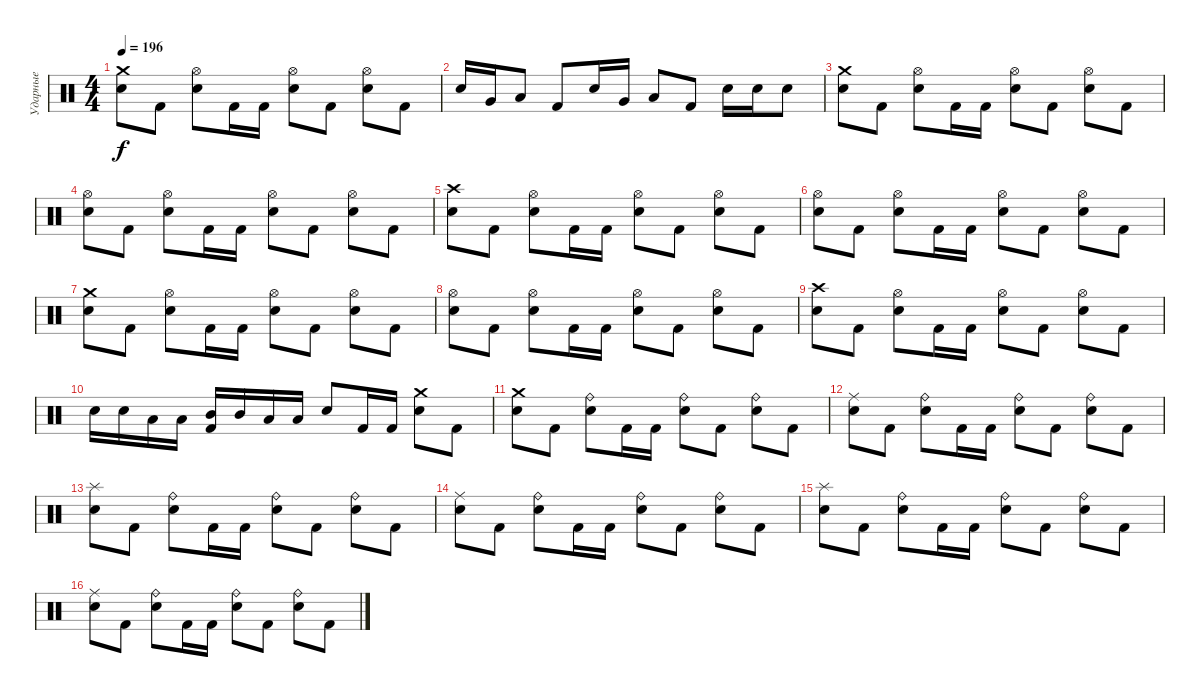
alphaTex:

\track ("Ударные" "Ударные") {instrument percussion}
\staff {score}
\articulation defaults
\ts (4 4)
\tempo 196
\clef neutral
\ks c
("Crash medium (hit)" "Snare (hit) 2").8{dy f} "Kick (hit) 2".8 ("Hi-Hat (open)" "Snare (hit) 2").8 "Kick (hit) 2".16 "Kick (hit) 2".16 ("Hi-Hat (open)" "Snare (hit) 2").8 "Kick (hit) 2".8 ("Hi-Hat (open)" "Snare (hit) 2").8 "Kick (hit) 2".8 |
"Snare (hit) 2".16 "Very Low Tom (hit)".16 "Low Tom (hit)".8 "Kick (hit) 2".8 "Snare (hit) 2".16 "Very Low Tom (hit)".16 "Low Tom (hit)".8 "Kick (hit) 2".8 "Snare (hit) 2".16 "Snare (hit) 2".16 "Snare (hit) 2".8 |
("Crash medium (hit)" "Snare (hit) 2").8 "Kick (hit) 2".8 ("Hi-Hat (open)" "Snare (hit) 2").8 "Kick (hit) 2".16 "Kick (hit) 2".16 ("Hi-Hat (open)" "Snare (hit) 2").8 "Kick (hit) 2".8 ("Hi-Hat (open)" "Snare (hit) 2").8 "Kick (hit) 2".8 |
("Hi-Hat (open)" "Snare (hit) 2").8 "Kick (hit) 2".8 ("Hi-Hat (open)" "Snare (hit) 2").8 "Kick (hit) 2".16 "Kick (hit) 2".16 ("Hi-Hat (open)" "Snare (hit) 2").8 "Kick (hit) 2".8 ("Hi-Hat (open)" "Snare (hit) 2").8 "Kick (hit) 2".8 |
("Crash high (hit)" "Snare (hit) 2").8 "Kick (hit) 2".8 ("Hi-Hat (open)" "Snare (hit) 2").8 "Kick (hit) 2".16 "Kick (hit) 2".16 ("Hi-Hat (open)" "Snare (hit) 2").8 "Kick (hit) 2".8 ("Hi-Hat (open)" "Snare (hit) 2").8 "Kick (hit) 2".8 |
("Hi-Hat (open)" "Snare (hit) 2").8 "Kick (hit) 2".8 ("Hi-Hat (open)" "Snare (hit) 2").8 "Kick (hit) 2".16 "Kick (hit) 2".16 ("Hi-Hat (open)" "Snare (hit) 2").8 "Kick (hit) 2".8 ("Hi-Hat (open)" "Snare (hit) 2").8 "Kick (hit) 2".8 |
("Crash medium (hit)" "Snare (hit) 2").8 "Kick (hit) 2".8 ("Hi-Hat (open)" "Snare (hit) 2").8 "Kick (hit) 2".16 "Kick (hit) 2".16 ("Hi-Hat (open)" "Snare (hit) 2").8 "Kick (hit) 2".8 ("Hi-Hat (open)" "Snare (hit) 2").8 "Kick (hit) 2".8 |
("Hi-Hat (open)" "Snare (hit) 2").8 "Kick (hit) 2".8 ("Hi-Hat (open)" "Snare (hit) 2").8 "Kick (hit) 2".16 "Kick (hit) 2".16 ("Hi-Hat (open)" "Snare (hit) 2").8 "Kick (hit) 2".8 ("Hi-Hat (open)" "Snare (hit) 2").8 "Kick (hit) 2".8 |
("Crash high (hit)" "Snare (hit) 2").8 "Kick (hit) 2".8 ("Hi-Hat (open)" "Snare (hit) 2").8 "Kick (hit) 2".16 "Kick (hit) 2".16 ("Hi-Hat (open)" "Snare (hit) 2").8 "Kick (hit) 2".8 ("Hi-Hat (open)" "Snare (hit) 2").8 "Kick (hit) 2".8 |
"Snare (hit) 2".16 "Snare (hit) 2".16 "Low Tom (hit)".16 "Low Tom (hit)".16 ("Mid Tom (hit)" "Kick (hit) 2").16 "Mid Tom (hit)".16 "Low Tom (hit)".16 "Low Tom (hit)".16 "Snare (hit) 2".8 "Kick (hit) 2".16 "Kick (hit) 2".16 ("Crash medium (hit)" "Snare (hit) 2").8 "Kick (hit) 2".8 |
("Crash medium (hit)" "Snare (hit) 2").8 "Kick (hit) 2".8 ("Ride (bell)" "Snare (hit) 2").8 "Kick (hit) 2".16 "Kick (hit) 2".16 ("Ride (bell)" "Snare (hit) 2").8 "Kick (hit) 2".8 ("Ride (bell)" "Snare (hit) 2").8 "Kick (hit) 2".8 |
("Ride (middle)" "Snare (hit) 2").8 "Kick (hit) 2".8 ("Ride (bell)" "Snare (hit) 2").8 "Kick (hit) 2".16 "Kick (hit) 2".16 ("Ride (bell)" "Snare (hit) 2").8 "Kick (hit) 2".8 ("Ride (bell)" "Snare (hit) 2").8 "Kick (hit) 2".8 |
("Splash (hit)" "Snare (hit) 2").8 "Kick (hit) 2".8 ("Ride (bell)" "Snare (hit) 2").8 "Kick (hit) 2".16 "Kick (hit) 2".16 ("Ride (bell)" "Snare (hit) 2").8 "Kick (hit) 2".8 ("Ride (bell)" "Snare (hit) 2").8 "Kick (hit) 2".8 |
("Ride (middle)" "Snare (hit) 2").8 "Kick (hit) 2".8 ("Ride (bell)" "Snare (hit) 2").8 "Kick (hit) 2".16 "Kick (hit) 2".16 ("Ride (bell)" "Snare (hit) 2").8 "Kick (hit) 2".8 ("Ride (bell)" "Snare (hit) 2").8 "Kick (hit) 2".8 |
("Splash (hit)" "Snare (hit) 2").8 "Kick (hit) 2".8 ("Ride (bell)" "Snare (hit) 2").8 "Kick (hit) 2".16 "Kick (hit) 2".16 ("Ride (bell)" "Snare (hit) 2").8 "Kick (hit) 2".8 ("Ride (bell)" "Snare (hit) 2").8 "Kick (hit) 2".8 |
("Ride (middle)" "Snare (hit) 2").8 "Kick (hit) 2".8 ("Ride (bell)" "Snare (hit) 2").8 "Kick (hit) 2".16 "Kick (hit) 2".16 ("Ride (bell)" "Snare (hit) 2").8 "Kick (hit) 2".8 ("Ride (bell)" "Snare (hit) 2").8 "Kick (hit) 2".8
